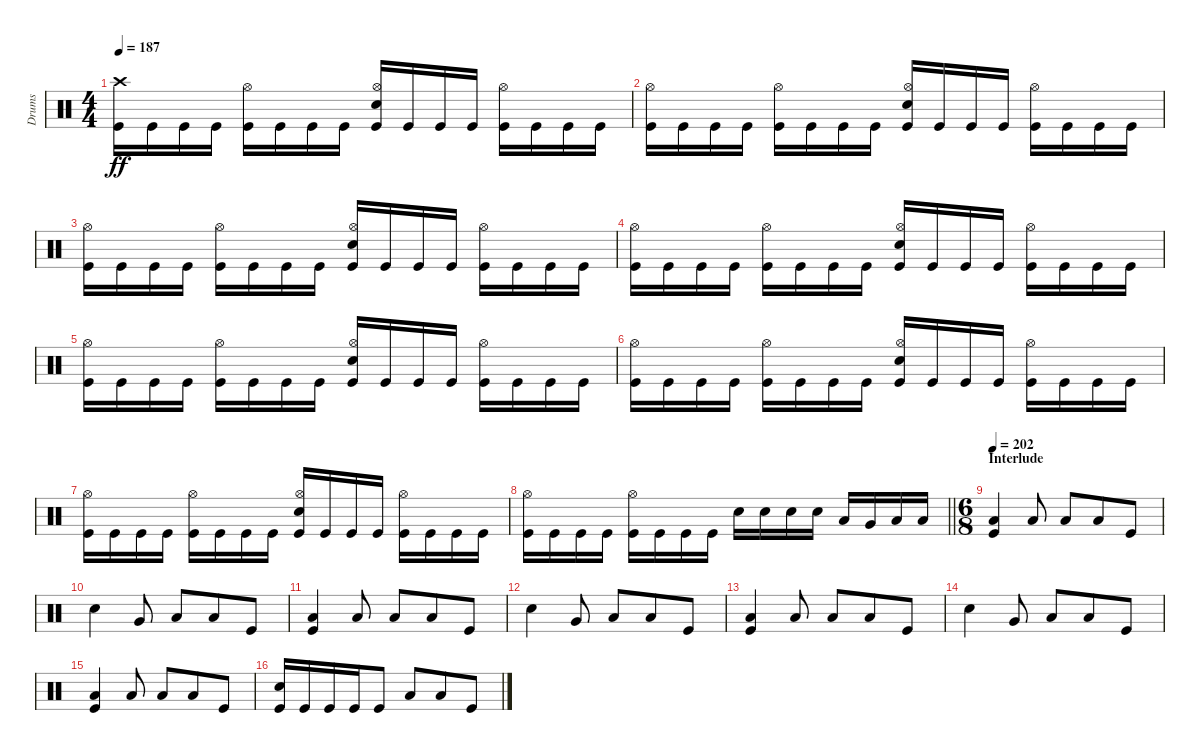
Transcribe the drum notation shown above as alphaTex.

\track ("Drums" "Drums") {instrument percussion}
\staff {score}
\articulation defaults
\ts (4 4)
\section ("" "")
\tempo 187
\clef neutral
\ks c
("Crash high (hit)" "Kick (hit)").16{dy ff} "Kick (hit)".16 "Kick (hit)".16 "Kick (hit)".16 ("Hi-Hat (open)" "Kick (hit)").16 "Kick (hit)".16 "Kick (hit)".16 "Kick (hit)".16 ("Hi-Hat (open)" "Electric Snare (hit)" "Kick (hit)").16 "Kick (hit)".16 "Kick (hit)".16 "Kick (hit)".16 ("Hi-Hat (open)" "Kick (hit)").16 "Kick (hit)".16 "Kick (hit)".16 "Kick (hit)".16 |
("Hi-Hat (open)" "Kick (hit)").16 "Kick (hit)".16 "Kick (hit)".16 "Kick (hit)".16 ("Hi-Hat (open)" "Kick (hit)").16 "Kick (hit)".16 "Kick (hit)".16 "Kick (hit)".16 ("Hi-Hat (open)" "Electric Snare (hit)" "Kick (hit)").16 "Kick (hit)".16 "Kick (hit)".16 "Kick (hit)".16 ("Hi-Hat (open)" "Kick (hit)").16 "Kick (hit)".16 "Kick (hit)".16 "Kick (hit)".16 |
("Hi-Hat (open)" "Kick (hit)").16 "Kick (hit)".16 "Kick (hit)".16 "Kick (hit)".16 ("Hi-Hat (open)" "Kick (hit)").16 "Kick (hit)".16 "Kick (hit)".16 "Kick (hit)".16 ("Hi-Hat (open)" "Electric Snare (hit)" "Kick (hit)").16 "Kick (hit)".16 "Kick (hit)".16 "Kick (hit)".16 ("Hi-Hat (open)" "Kick (hit)").16 "Kick (hit)".16 "Kick (hit)".16 "Kick (hit)".16 |
("Hi-Hat (open)" "Kick (hit)").16 "Kick (hit)".16 "Kick (hit)".16 "Kick (hit)".16 ("Hi-Hat (open)" "Kick (hit)").16 "Kick (hit)".16 "Kick (hit)".16 "Kick (hit)".16 ("Hi-Hat (open)" "Electric Snare (hit)" "Kick (hit)").16 "Kick (hit)".16 "Kick (hit)".16 "Kick (hit)".16 ("Hi-Hat (open)" "Kick (hit)").16 "Kick (hit)".16 "Kick (hit)".16 "Kick (hit)".16 |
("Hi-Hat (open)" "Kick (hit)").16 "Kick (hit)".16 "Kick (hit)".16 "Kick (hit)".16 ("Hi-Hat (open)" "Kick (hit)").16 "Kick (hit)".16 "Kick (hit)".16 "Kick (hit)".16 ("Hi-Hat (open)" "Electric Snare (hit)" "Kick (hit)").16 "Kick (hit)".16 "Kick (hit)".16 "Kick (hit)".16 ("Hi-Hat (open)" "Kick (hit)").16 "Kick (hit)".16 "Kick (hit)".16 "Kick (hit)".16 |
("Hi-Hat (open)" "Kick (hit)").16 "Kick (hit)".16 "Kick (hit)".16 "Kick (hit)".16 ("Hi-Hat (open)" "Kick (hit)").16 "Kick (hit)".16 "Kick (hit)".16 "Kick (hit)".16 ("Hi-Hat (open)" "Electric Snare (hit)" "Kick (hit)").16 "Kick (hit)".16 "Kick (hit)".16 "Kick (hit)".16 ("Hi-Hat (open)" "Kick (hit)").16 "Kick (hit)".16 "Kick (hit)".16 "Kick (hit)".16 |
("Hi-Hat (open)" "Kick (hit)").16 "Kick (hit)".16 "Kick (hit)".16 "Kick (hit)".16 ("Hi-Hat (open)" "Kick (hit)").16 "Kick (hit)".16 "Kick (hit)".16 "Kick (hit)".16 ("Hi-Hat (open)" "Electric Snare (hit)" "Kick (hit)").16 "Kick (hit)".16 "Kick (hit)".16 "Kick (hit)".16 ("Hi-Hat (open)" "Kick (hit)").16 "Kick (hit)".16 "Kick (hit)".16 "Kick (hit)".16 |
\barLineRight lightlight
("Hi-Hat (open)" "Kick (hit)").16 "Kick (hit)".16 "Kick (hit)".16 "Kick (hit)".16 ("Hi-Hat (open)" "Kick (hit)").16 "Kick (hit)".16 "Kick (hit)".16 "Kick (hit)".16 "Electric Snare (hit)".16 "Electric Snare (hit)".16 "Electric Snare (hit)".16 "Electric Snare (hit)".16 "Low Tom (hit)".16 "Very Low Tom (hit)".16 "Low Floor Tom (hit)".16 "Low Floor Tom (hit)".16 |
\ts (6 8)
\section ("" "Interlude")
\tempo 202
("Low Floor Tom (hit)" "Kick (hit)").4 "Low Floor Tom (hit)".8 "Low Tom (hit)".8 "Low Floor Tom (hit)".8 "Kick (hit)".8 |
"Electric Snare (hit)".4 "Very Low Tom (hit)".8 "Low Tom (hit)".8 "Low Floor Tom (hit)".8 "Kick (hit)".8 |
("Low Floor Tom (hit)" "Kick (hit)").4 "Low Floor Tom (hit)".8 "Low Tom (hit)".8 "Low Floor Tom (hit)".8 "Kick (hit)".8 |
"Electric Snare (hit)".4 "Very Low Tom (hit)".8 "Low Tom (hit)".8 "Low Floor Tom (hit)".8 "Kick (hit)".8 |
("Low Floor Tom (hit)" "Kick (hit)").4 "Low Floor Tom (hit)".8 "Low Tom (hit)".8 "Low Floor Tom (hit)".8 "Kick (hit)".8 |
"Electric Snare (hit)".4 "Very Low Tom (hit)".8 "Low Tom (hit)".8 "Low Floor Tom (hit)".8 "Kick (hit)".8 |
("Low Floor Tom (hit)" "Kick (hit)").4 "Low Floor Tom (hit)".8 "Low Tom (hit)".8 "Low Floor Tom (hit)".8 "Kick (hit)".8 |
("Electric Snare (hit)" "Kick (hit)").16 "Kick (hit)".16 "Kick (hit)".16 "Kick (hit)".16 "Kick (hit)".8 "Low Tom (hit)".8 "Low Floor Tom (hit)".8 "Kick (hit)".8
